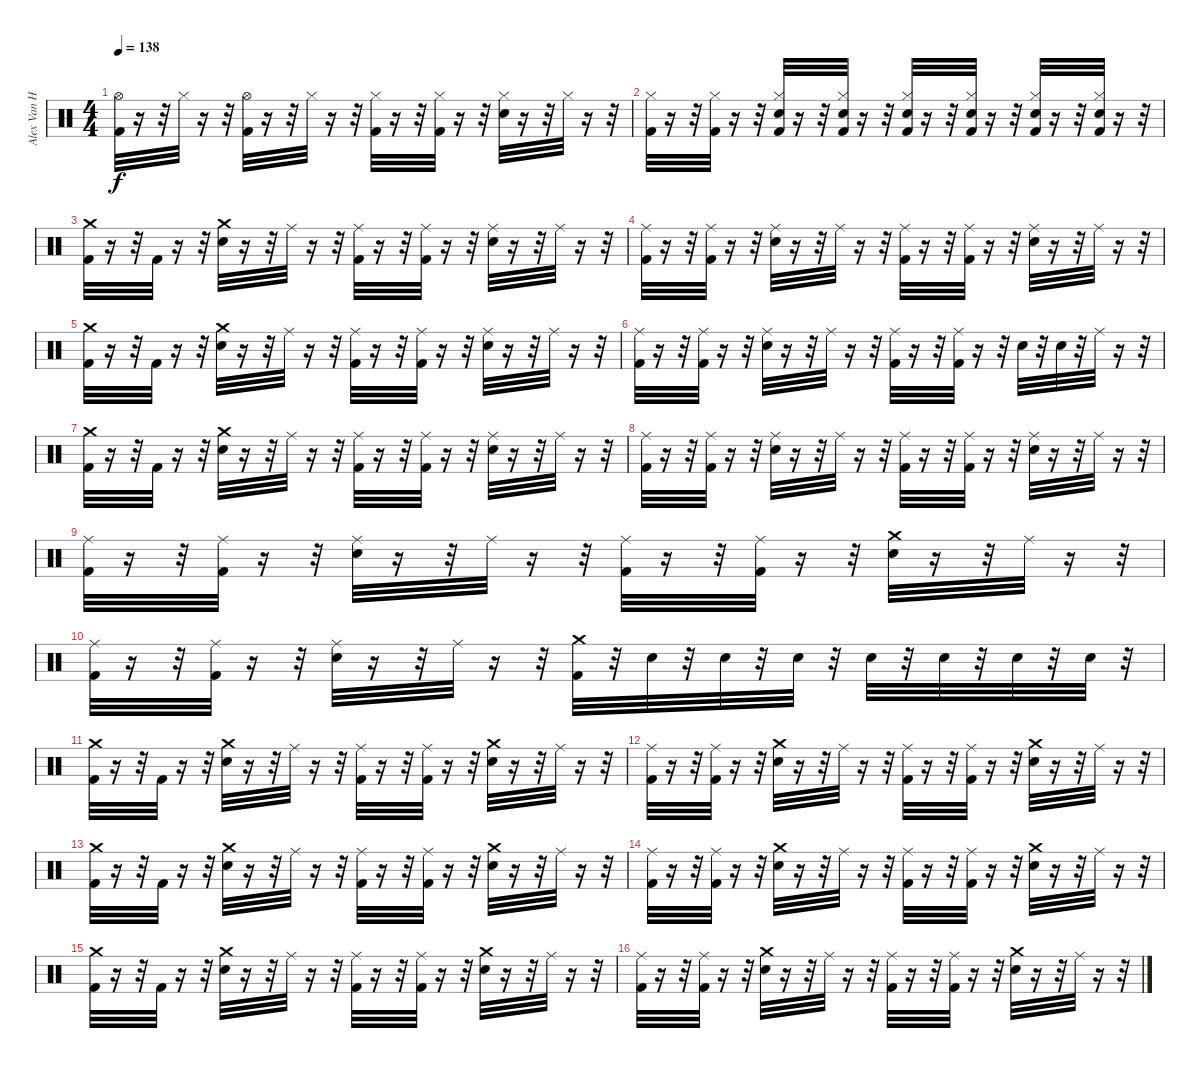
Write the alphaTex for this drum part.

\track ("Alex Van Halen (Drums)" "Alex Van H") {instrument percussion}
\staff {score}
\articulation defaults
\ts (4 4)
\tempo 138
\clef neutral
\ks c
("Kick (hit) 2" "Hi-Hat (open)").32{dy f} r.16 r.32 "Hi-Hat (closed)".32 r.16 r.32 ("Kick (hit) 2" "Hi-Hat (open)").32 r.16 r.32 "Hi-Hat (closed)".32 r.16 r.32 ("Kick (hit) 2" "Hi-Hat (closed)").32 r.16 r.32 ("Kick (hit) 2" "Hi-Hat (closed)").32 r.16 r.32 ("Snare (hit) 2" "Hi-Hat (closed)").32 r.16 r.32 "Hi-Hat (closed)".32 r.16 r.32 |
("Kick (hit) 2" "Hi-Hat (closed)").32 r.16 r.32 ("Kick (hit) 2" "Hi-Hat (closed)").32 r.16 r.32 ("Snare (hit) 2" "Kick (hit) 2" "Hi-Hat (closed)").32 r.16 r.32 ("Snare (hit) 2" "Kick (hit) 2" "Hi-Hat (closed)").32 r.16 r.32 ("Snare (hit) 2" "Kick (hit) 2" "Hi-Hat (closed)").32 r.16 r.32 ("Snare (hit) 2" "Kick (hit) 2" "Hi-Hat (closed)").32 r.16 r.32 ("Snare (hit) 2" "Kick (hit) 2" "Hi-Hat (closed)").32 r.16 r.32 ("Snare (hit) 2" "Kick (hit) 2" "Hi-Hat (closed)").32 r.16 r.32 |
("Kick (hit) 2" "Crash medium (hit)").32 r.16 r.32 "Kick (hit) 2".32 r.16 r.32 ("Snare (hit) 2" "Crash medium (hit)").32 r.16 r.32 "Ride (middle)".32 r.16 r.32 ("Kick (hit) 2" "Ride (middle)").32 r.16 r.32 ("Kick (hit) 2" "Ride (middle)").32 r.16 r.32 ("Snare (hit) 2" "Ride (middle)").32 r.16 r.32 "Ride (middle)".32 r.16 r.32 |
("Kick (hit) 2" "Ride (middle)").32 r.16 r.32 ("Kick (hit) 2" "Ride (middle)").32 r.16 r.32 ("Snare (hit) 2" "Ride (middle)").32 r.16 r.32 "Ride (middle)".32 r.16 r.32 ("Kick (hit) 2" "Ride (middle)").32 r.16 r.32 ("Kick (hit) 2" "Ride (middle)").32 r.16 r.32 ("Snare (hit) 2" "Ride (middle)").32 r.16 r.32 "Ride (middle)".32 r.16 r.32 |
("Kick (hit) 2" "Crash medium (hit)").32 r.16 r.32 "Kick (hit) 2".32 r.16 r.32 ("Snare (hit) 2" "Crash medium (hit)").32 r.16 r.32 "Ride (middle)".32 r.16 r.32 ("Kick (hit) 2" "Ride (middle)").32 r.16 r.32 ("Kick (hit) 2" "Ride (middle)").32 r.16 r.32 ("Snare (hit) 2" "Ride (middle)").32 r.16 r.32 "Ride (middle)".32 r.16 r.32 |
("Kick (hit) 2" "Ride (middle)").32 r.16 r.32 ("Kick (hit) 2" "Ride (middle)").32 r.16 r.32 ("Snare (hit) 2" "Ride (middle)").32 r.16 r.32 "Ride (middle)".32 r.16 r.32 ("Kick (hit) 2" "Ride (middle)").32 r.16 r.32 ("Kick (hit) 2" "Ride (middle)").32 r.16 r.32 "Snare (hit) 2".32 r.32 "Snare (hit) 2".32 r.32 "Ride (middle)".32 r.16 r.32 |
("Kick (hit) 2" "Crash medium (hit)").32 r.16 r.32 "Kick (hit) 2".32 r.16 r.32 ("Snare (hit) 2" "Crash medium (hit)").32 r.16 r.32 "Ride (middle)".32 r.16 r.32 ("Kick (hit) 2" "Ride (middle)").32 r.16 r.32 ("Kick (hit) 2" "Ride (middle)").32 r.16 r.32 ("Snare (hit) 2" "Ride (middle)").32 r.16 r.32 "Ride (middle)".32 r.16 r.32 |
("Kick (hit) 2" "Ride (middle)").32 r.16 r.32 ("Kick (hit) 2" "Ride (middle)").32 r.16 r.32 ("Snare (hit) 2" "Ride (middle)").32 r.16 r.32 "Ride (middle)".32 r.16 r.32 ("Kick (hit) 2" "Ride (middle)").32 r.16 r.32 ("Kick (hit) 2" "Ride (middle)").32 r.16 r.32 ("Snare (hit) 2" "Ride (middle)").32 r.16 r.32 "Ride (middle)".32 r.16 r.32 |
("Kick (hit) 2" "Ride (middle)").32 r.16 r.32 ("Kick (hit) 2" "Ride (middle)").32 r.16 r.32 ("Snare (hit) 2" "Ride (middle)").32 r.16 r.32 "Ride (middle)".32 r.16 r.32 ("Kick (hit) 2" "Ride (middle)").32 r.16 r.32 ("Ride (middle)" "Kick (hit) 2").32 r.16 r.32 ("Crash medium (hit)" "Snare (hit) 2").32 r.16 r.32 "Ride (middle)".32 r.16 r.32 |
("Kick (hit) 2" "Ride (middle)").32 r.16 r.32 ("Kick (hit) 2" "Ride (middle)").32 r.16 r.32 ("Snare (hit) 2" "Ride (middle)").32 r.16 r.32 "Ride (middle)".32 r.16 r.32 ("Kick (hit) 2" "Crash medium (hit)").32 r.32 "Snare (hit) 2".32 r.32 "Snare (hit) 2".32 r.32 "Snare (hit) 2".32 r.32 "Snare (hit) 2".32 r.32 "Snare (hit) 2".32 r.32 "Snare (hit) 2".32 r.32 "Snare (hit) 2".32 r.32 |
("Kick (hit) 2" "Crash medium (hit)").32 r.16 r.32 "Kick (hit) 2".32 r.16 r.32 ("Snare (hit) 2" "Crash medium (hit)").32 r.16 r.32 "Ride (middle)".32 r.16 r.32 ("Kick (hit) 2" "Ride (middle)").32 r.16 r.32 ("Kick (hit) 2" "Ride (middle)").32 r.16 r.32 ("Snare (hit) 2" "Crash medium (hit)").32 r.16 r.32 "Ride (middle)".32 r.16 r.32 |
("Kick (hit) 2" "Ride (middle)").32 r.16 r.32 ("Kick (hit) 2" "Ride (middle)").32 r.16 r.32 ("Snare (hit) 2" "Crash medium (hit)").32 r.16 r.32 "Ride (middle)".32 r.16 r.32 ("Kick (hit) 2" "Ride (middle)").32 r.16 r.32 ("Kick (hit) 2" "Ride (middle)").32 r.16 r.32 ("Snare (hit) 2" "Crash medium (hit)").32 r.16 r.32 "Ride (middle)".32 r.16 r.32 |
("Kick (hit) 2" "Crash medium (hit)").32 r.16 r.32 "Kick (hit) 2".32 r.16 r.32 ("Snare (hit) 2" "Crash medium (hit)").32 r.16 r.32 "Ride (middle)".32 r.16 r.32 ("Kick (hit) 2" "Ride (middle)").32 r.16 r.32 ("Kick (hit) 2" "Ride (middle)").32 r.16 r.32 ("Snare (hit) 2" "Crash medium (hit)").32 r.16 r.32 "Ride (middle)".32 r.16 r.32 |
("Kick (hit) 2" "Ride (middle)").32 r.16 r.32 ("Kick (hit) 2" "Ride (middle)").32 r.16 r.32 ("Snare (hit) 2" "Crash medium (hit)").32 r.16 r.32 "Ride (middle)".32 r.16 r.32 ("Kick (hit) 2" "Ride (middle)").32 r.16 r.32 ("Kick (hit) 2" "Ride (middle)").32 r.16 r.32 ("Snare (hit) 2" "Crash medium (hit)").32 r.16 r.32 "Ride (middle)".32 r.16 r.32 |
("Kick (hit) 2" "Crash medium (hit)").32 r.16 r.32 "Kick (hit) 2".32 r.16 r.32 ("Snare (hit) 2" "Crash medium (hit)").32 r.16 r.32 "Ride (middle)".32 r.16 r.32 ("Kick (hit) 2" "Ride (middle)").32 r.16 r.32 ("Kick (hit) 2" "Ride (middle)").32 r.16 r.32 ("Snare (hit) 2" "Crash medium (hit)").32 r.16 r.32 "Ride (middle)".32 r.16 r.32 |
("Kick (hit) 2" "Ride (middle)").32 r.16 r.32 ("Kick (hit) 2" "Ride (middle)").32 r.16 r.32 ("Snare (hit) 2" "Crash medium (hit)").32 r.16 r.32 "Ride (middle)".32 r.16 r.32 ("Kick (hit) 2" "Ride (middle)").32 r.16 r.32 ("Kick (hit) 2" "Ride (middle)").32 r.16 r.32 ("Snare (hit) 2" "Crash medium (hit)").32 r.16 r.32 "Ride (middle)".32 r.16 r.32
